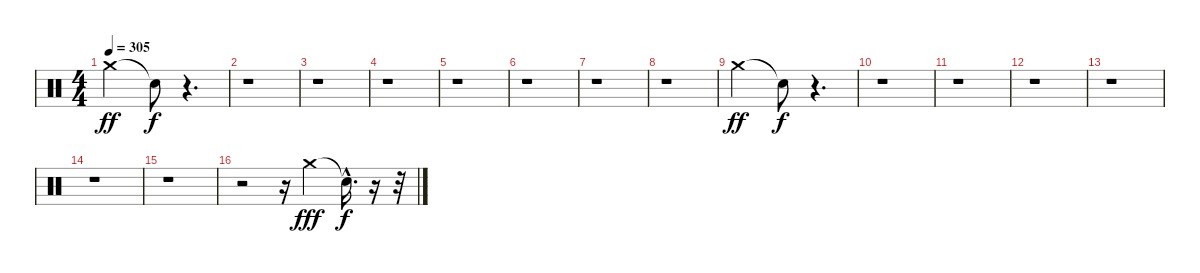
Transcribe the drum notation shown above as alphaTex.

\track "" {instrument percussion}
\staff {score}
\articulation defaults
\ts (4 4)
\tempo 305
\clef neutral
\ks c "Crash medium (hit)".2{dy ff} "Snare (hit)"{t}.8{dy f}
r.4{d} |
r.1 |
r.1 |
r.1 |
r.1 |
r.1 |
r.1 |
r.1 |
"Crash medium (hit)".2{dy ff} "Snare (hit)"{t}.8{dy f} r.4{d} |
r.1 |
r.1 |
r.1 |
r.1 |
r.1 |
r.1 |
r.2 r.16 "Crash medium (hit)".4{dy fff} "Snare (hit)"{hac t}.16{d dy f} r.16 r.32
